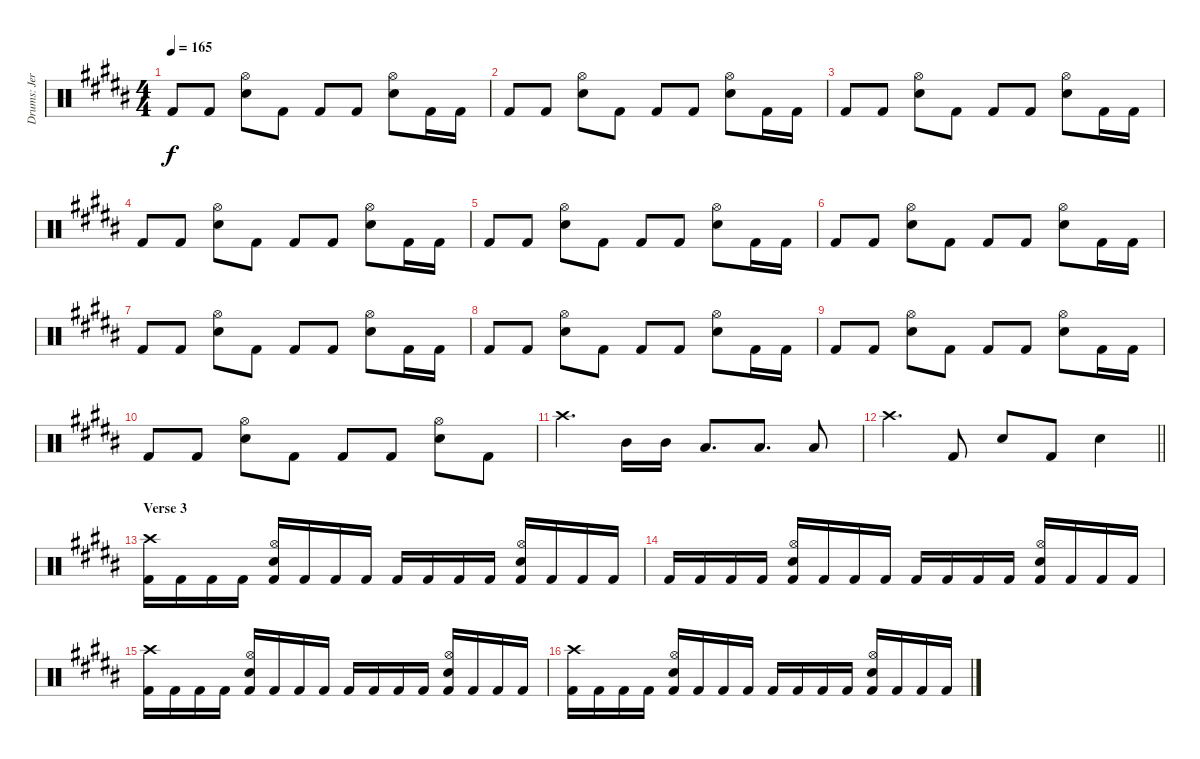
\track ("Drums: Jere Luokkamäki" "Drums: Jer") {instrument percussion}
\staff {score}
\articulation defaults
\ts (4 4)
\tempo 165
\clef neutral
\ks g#minor "Kick (hit) 2".8{dy f} "Kick (hit) 2".8
("Hi-Hat (open)" "Electric Snare (hit)").8 "Kick (hit) 2".8 "Kick (hit) 2".8 "Kick (hit) 2".8 ("Hi-Hat (open)" "Electric Snare (hit)").8 "Kick (hit) 2".16 "Kick (hit) 2".16 |
"Kick (hit) 2".8 "Kick (hit) 2".8 ("Hi-Hat (open)" "Electric Snare (hit)").8 "Kick (hit) 2".8 "Kick (hit) 2".8 "Kick (hit) 2".8 ("Hi-Hat (open)" "Electric Snare (hit)").8 "Kick (hit) 2".16 "Kick (hit) 2".16 |
"Kick (hit) 2".8 "Kick (hit) 2".8 ("Hi-Hat (open)" "Electric Snare (hit)").8 "Kick (hit) 2".8 "Kick (hit) 2".8 "Kick (hit) 2".8 ("Hi-Hat (open)" "Electric Snare (hit)").8 "Kick (hit) 2".16 "Kick (hit) 2".16 |
"Kick (hit) 2".8 "Kick (hit) 2".8 ("Hi-Hat (open)" "Electric Snare (hit)").8 "Kick (hit) 2".8 "Kick (hit) 2".8 "Kick (hit) 2".8 ("Hi-Hat (open)" "Electric Snare (hit)").8 "Kick (hit) 2".16 "Kick (hit) 2".16 |
"Kick (hit) 2".8 "Kick (hit) 2".8 ("Hi-Hat (open)" "Electric Snare (hit)").8 "Kick (hit) 2".8 "Kick (hit) 2".8 "Kick (hit) 2".8 ("Hi-Hat (open)" "Electric Snare (hit)").8 "Kick (hit) 2".16 "Kick (hit) 2".16 |
"Kick (hit) 2".8 "Kick (hit) 2".8 ("Hi-Hat (open)" "Electric Snare (hit)").8 "Kick (hit) 2".8 "Kick (hit) 2".8 "Kick (hit) 2".8 ("Hi-Hat (open)" "Electric Snare (hit)").8 "Kick (hit) 2".16 "Kick (hit) 2".16 |
"Kick (hit) 2".8 "Kick (hit) 2".8 ("Hi-Hat (open)" "Electric Snare (hit)").8 "Kick (hit) 2".8 "Kick (hit) 2".8 "Kick (hit) 2".8 ("Hi-Hat (open)" "Electric Snare (hit)").8 "Kick (hit) 2".16 "Kick (hit) 2".16 |
"Kick (hit) 2".8 "Kick (hit) 2".8 ("Hi-Hat (open)" "Electric Snare (hit)").8 "Kick (hit) 2".8 "Kick (hit) 2".8 "Kick (hit) 2".8 ("Hi-Hat (open)" "Electric Snare (hit)").8 "Kick (hit) 2".16 "Kick (hit) 2".16 |
"Kick (hit) 2".8 "Kick (hit) 2".8 ("Hi-Hat (open)" "Electric Snare (hit)").8 "Kick (hit) 2".8 "Kick (hit) 2".8 "Kick (hit) 2".8 ("Hi-Hat (open)" "Electric Snare (hit)").8 "Kick (hit) 2".16 "Kick (hit) 2".16 |
"Kick (hit) 2".8 "Kick (hit) 2".8 ("Hi-Hat (open)" "Electric Snare (hit)").8 "Kick (hit) 2".8 "Kick (hit) 2".8 "Kick (hit) 2".8 ("Hi-Hat (open)" "Electric Snare (hit)").8 "Kick (hit) 2".8 |
"Crash high (hit)".4{d} "Mid Tom (hit)".16 "Mid Tom (hit)".16 "Low Tom (hit)".8{d} "Low Tom (hit)".8{d} "Low Tom (hit)".8 |
\barLineRight lightlight "Crash high (hit)".4{d} "Kick (hit) 2".8 "Electric Snare (hit)".8 "Kick (hit) 2".8 "Electric Snare (hit)".4
|
\section ("" "Verse 3")
("Crash high (hit)" "Kick (hit) 2").16 "Kick (hit) 2".16 "Kick (hit) 2".16 "Kick (hit) 2".16 ("Hi-Hat (open)" "Electric Snare (hit)" "Kick (hit) 2").16 "Kick (hit) 2".16 "Kick (hit) 2".16 "Kick (hit) 2".16 "Kick (hit) 2".16 "Kick (hit) 2".16 "Kick (hit) 2".16 "Kick (hit) 2".16 ("Hi-Hat (open)" "Electric Snare (hit)" "Kick (hit) 2").16 "Kick (hit) 2".16 "Kick (hit) 2".16 "Kick (hit) 2".16 |
"Kick (hit) 2".16 "Kick (hit) 2".16 "Kick (hit) 2".16 "Kick (hit) 2".16 ("Hi-Hat (open)" "Electric Snare (hit)" "Kick (hit) 2").16 "Kick (hit) 2".16 "Kick (hit) 2".16 "Kick (hit) 2".16 "Kick (hit) 2".16 "Kick (hit) 2".16 "Kick (hit) 2".16 "Kick (hit) 2".16 ("Hi-Hat (open)" "Electric Snare (hit)" "Kick (hit) 2").16 "Kick (hit) 2".16 "Kick (hit) 2".16 "Kick (hit) 2".16 |
("Crash high (hit)" "Kick (hit) 2").16 "Kick (hit) 2".16 "Kick (hit) 2".16 "Kick (hit) 2".16 ("Hi-Hat (open)" "Electric Snare (hit)" "Kick (hit) 2").16 "Kick (hit) 2".16 "Kick (hit) 2".16 "Kick (hit) 2".16 "Kick (hit) 2".16 "Kick (hit) 2".16 "Kick (hit) 2".16 "Kick (hit) 2".16 ("Hi-Hat (open)" "Electric Snare (hit)" "Kick (hit) 2").16 "Kick (hit) 2".16 "Kick (hit) 2".16 "Kick (hit) 2".16 |
("Crash high (hit)" "Kick (hit) 2").16 "Kick (hit) 2".16 "Kick (hit) 2".16 "Kick (hit) 2".16 ("Hi-Hat (open)" "Electric Snare (hit)" "Kick (hit) 2").16 "Kick (hit) 2".16 "Kick (hit) 2".16 "Kick (hit) 2".16 "Kick (hit) 2".16 "Kick (hit) 2".16 "Kick (hit) 2".16 "Kick (hit) 2".16 ("Hi-Hat (open)" "Electric Snare (hit)" "Kick (hit) 2").16 "Kick (hit) 2".16 "Kick (hit) 2".16 "Kick (hit) 2".16
